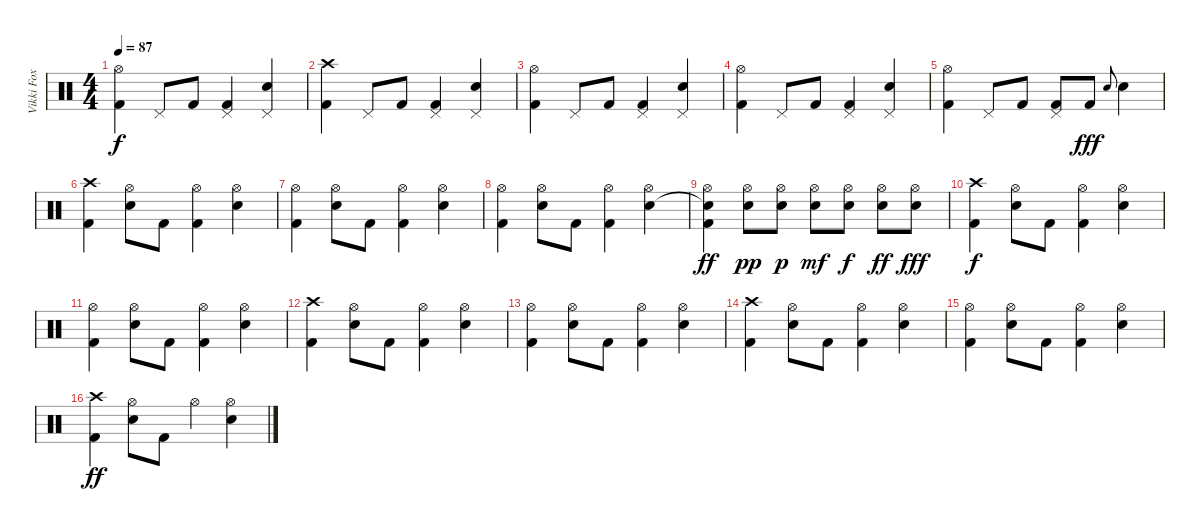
\track ("Vikki Fox" "Vikki Fox") {instrument percussion}
\staff {score}
\articulation defaults
\ts (4 4)
\tempo 87
\clef neutral
\ks c
("Hi-Hat (open)" "Kick (hit) 2").4{dy f} "Pedal Hi-Hat (hit)".8 "Kick (hit) 2".8 ("Pedal Hi-Hat (hit)" "Kick (hit) 2").4 ("Pedal Hi-Hat (hit)" "Snare (hit) 2").4 |
("Crash high (hit)" "Kick (hit) 2").4 "Pedal Hi-Hat (hit)".8 "Kick (hit) 2".8 ("Pedal Hi-Hat (hit)" "Kick (hit) 2").4 ("Pedal Hi-Hat (hit)" "Snare (hit) 2").4 |
("Hi-Hat (open)" "Kick (hit) 2").4 "Pedal Hi-Hat (hit)".8 "Kick (hit) 2".8 ("Pedal Hi-Hat (hit)" "Kick (hit) 2").4 ("Pedal Hi-Hat (hit)" "Snare (hit) 2").4 |
("Hi-Hat (open)" "Kick (hit) 2").4 "Pedal Hi-Hat (hit)".8 "Kick (hit) 2".8 ("Pedal Hi-Hat (hit)" "Kick (hit) 2").4 ("Pedal Hi-Hat (hit)" "Snare (hit) 2").4 |
("Hi-Hat (open)" "Kick (hit) 2").4 "Pedal Hi-Hat (hit)".8 "Kick (hit) 2".8 ("Pedal Hi-Hat (hit)" "Kick (hit) 2").8 "Kick (hit) 2".8{dy fff} "Snare (hit) 2".8{gr onbeat} "Snare (hit) 2".4{volume 16} |
("Crash high (hit)" "Kick (hit) 2").4{volume 11} ("Hi-Hat (open)" "Snare (hit) 2").8 "Kick (hit) 2".8 ("Hi-Hat (open)" "Kick (hit) 2").4 ("Hi-Hat (open)" "Snare (hit) 2").4 |
("Hi-Hat (open)" "Kick (hit) 2").4 ("Hi-Hat (open)" "Snare (hit) 2").8 "Kick (hit) 2".8 ("Hi-Hat (open)" "Kick (hit) 2").4 ("Hi-Hat (open)" "Snare (hit) 2").4 |
("Hi-Hat (open)" "Kick (hit) 2").4 ("Hi-Hat (open)" "Snare (hit) 2").8 "Kick (hit) 2".8 ("Hi-Hat (open)" "Kick (hit) 2").4 ("Hi-Hat (open)" "Snare (hit) 2").4{volume 16} |
("Hi-Hat (open)" "Snare (hit)"{t} "Kick (hit) 2").4{dy ff} ("Hi-Hat (open)" "Snare (hit) 2").8{dy pp volume 11} ("Hi-Hat (open)" "Snare (hit) 2").8{dy p} ("Hi-Hat (open)" "Snare (hit) 2").8{dy mf} ("Hi-Hat (open)" "Snare (hit) 2").8{dy f} ("Hi-Hat (open)" "Snare (hit) 2").8{dy ff} ("Hi-Hat (open)" "Snare (hit) 2").8{dy fff} |
("Crash high (hit)" "Kick (hit) 2").4{dy f} ("Hi-Hat (open)" "Snare (hit) 2").8 "Kick (hit) 2".8 ("Hi-Hat (open)" "Kick (hit) 2").4 ("Hi-Hat (open)" "Snare (hit) 2").4 |
("Hi-Hat (open)" "Kick (hit) 2").4 ("Hi-Hat (open)" "Snare (hit) 2").8 "Kick (hit) 2".8 ("Hi-Hat (open)" "Kick (hit) 2").4 ("Hi-Hat (open)" "Snare (hit) 2").4 |
("Crash high (hit)" "Kick (hit) 2").4 ("Hi-Hat (open)" "Snare (hit) 2").8 "Kick (hit) 2".8 ("Hi-Hat (open)" "Kick (hit) 2").4 ("Hi-Hat (open)" "Snare (hit) 2").4 |
("Hi-Hat (open)" "Kick (hit) 2").4 ("Hi-Hat (open)" "Snare (hit) 2").8 "Kick (hit) 2".8 ("Hi-Hat (open)" "Kick (hit) 2").4 ("Hi-Hat (open)" "Snare (hit) 2").4 |
("Crash high (hit)" "Kick (hit) 2").4 ("Hi-Hat (open)" "Snare (hit) 2").8 "Kick (hit) 2".8 ("Hi-Hat (open)" "Kick (hit) 2").4 ("Hi-Hat (open)" "Snare (hit) 2").4 |
("Hi-Hat (open)" "Kick (hit) 2").4 ("Hi-Hat (open)" "Snare (hit) 2").8 "Kick (hit) 2".8 ("Hi-Hat (open)" "Kick (hit) 2").4 ("Hi-Hat (open)" "Snare (hit) 2").4 |
("Crash high (hit)" "Kick (hit) 2").4{dy ff} ("Hi-Hat (open)" "Snare (hit) 2").8 "Kick (hit) 2".8 "Hi-Hat (open)".4 ("Hi-Hat (open)" "Snare (hit) 2").4
